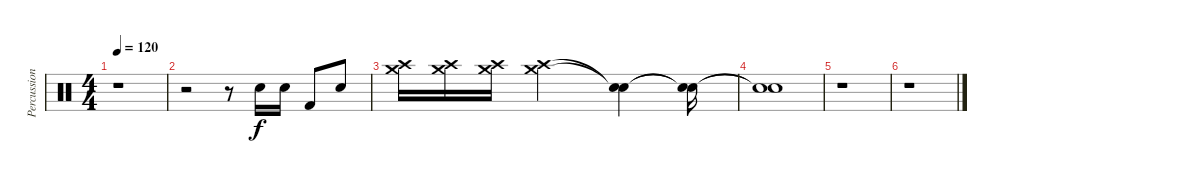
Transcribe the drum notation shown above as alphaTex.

\track ("Percussion" "Percussion") {instrument percussion}
\staff {score}
\articulation defaults
\ts (4 4)
\tempo 120
\clef neutral
\ks c
r.1{dy f} |
r.2 r.8 "Electric Snare (hit)".16 "Electric Snare (hit)".16 "Kick (hit) 2".8 "Electric Snare (hit)".8 |
("Crash high (hit)" "Crash medium (hit)").16 ("Crash high (hit)" "Crash medium (hit)").16 ("Crash high (hit)" "Crash medium (hit)").16 ("Crash high (hit)" "Crash medium (hit)").2 ("Snare (hit)"{t} "Snare (hit)"{t}).4 ("Snare (hit)"{t} "Snare (hit)"{t}).16 |
("Snare (hit)"{t} "Snare (hit)"{t}).1 |
r.1 |
r.1
